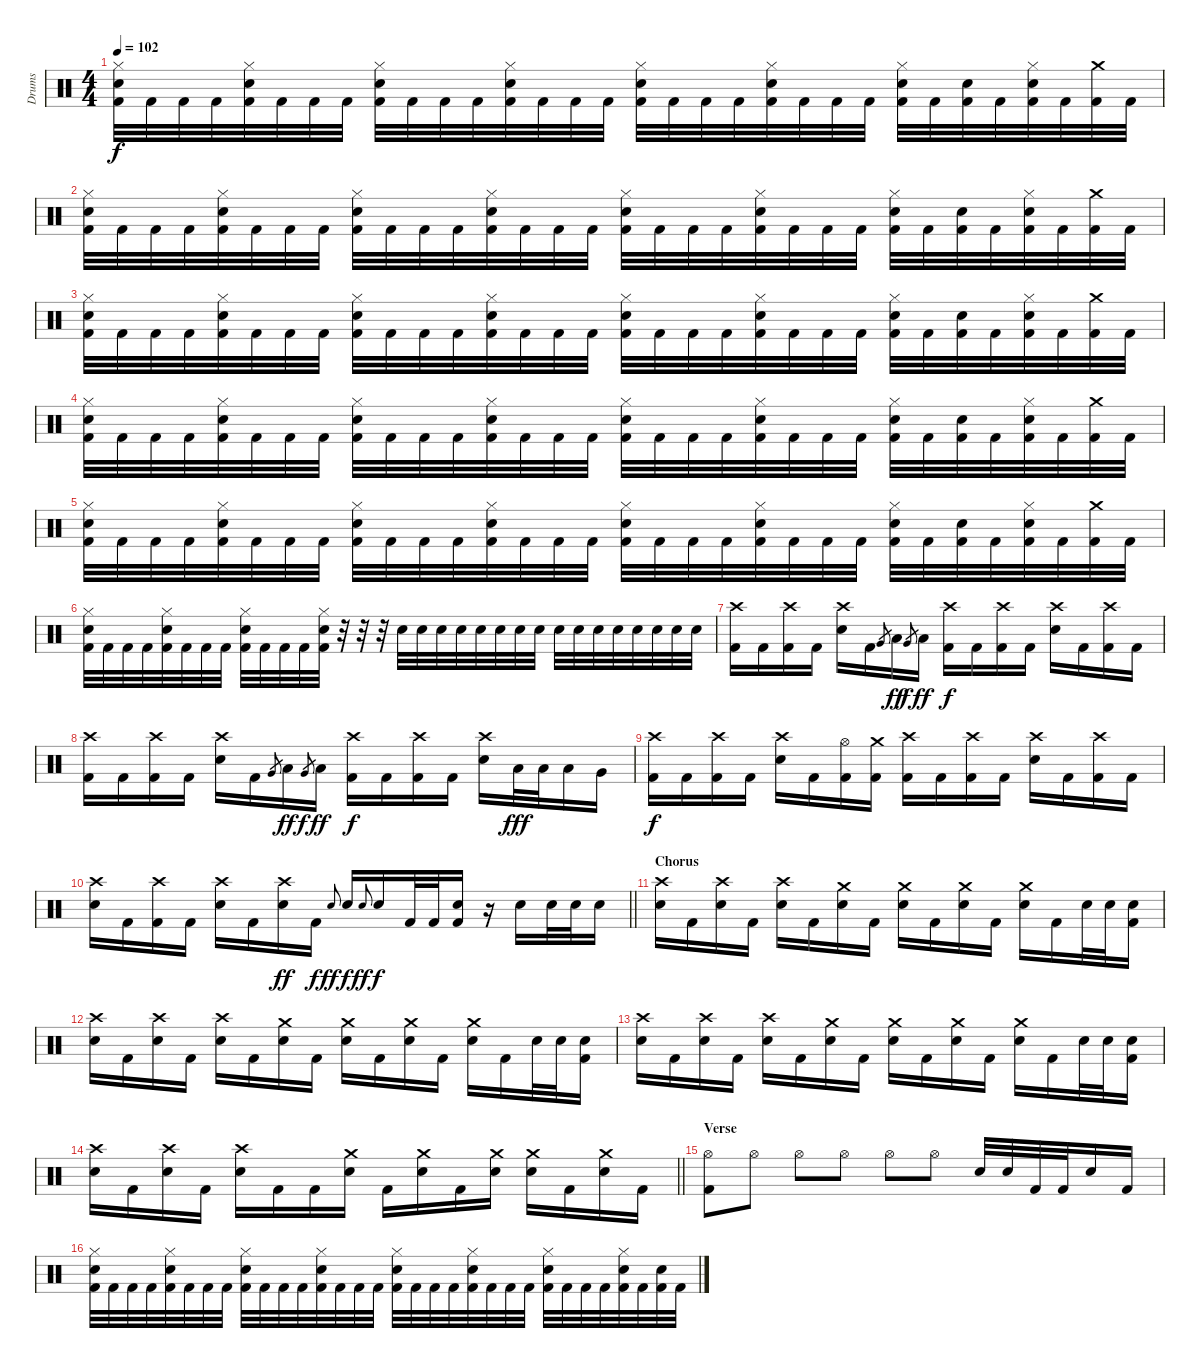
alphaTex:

\track ("Drums" "Drums") {instrument percussion}
\staff {score}
\articulation defaults
\ts (4 4)
\tempo 102
\clef neutral
\ks c
("Hi-Hat (closed)" "Snare (hit) 2" "Kick (hit) 2").32{dy f} "Kick (hit) 2".32 "Kick (hit) 2".32 "Kick (hit) 2".32 ("Hi-Hat (closed)" "Snare (hit) 2" "Kick (hit) 2").32 "Kick (hit) 2".32 "Kick (hit) 2".32 "Kick (hit) 2".32 ("Hi-Hat (closed)" "Snare (hit) 2" "Kick (hit) 2").32 "Kick (hit) 2".32 "Kick (hit) 2".32 "Kick (hit) 2".32 ("Hi-Hat (closed)" "Snare (hit) 2" "Kick (hit) 2").32 "Kick (hit) 2".32 "Kick (hit) 2".32 "Kick (hit) 2".32 ("Hi-Hat (closed)" "Snare (hit) 2" "Kick (hit) 2").32 "Kick (hit) 2".32 "Kick (hit) 2".32 "Kick (hit) 2".32 ("Hi-Hat (closed)" "Snare (hit) 2" "Kick (hit) 2").32 "Kick (hit) 2".32 "Kick (hit) 2".32 "Kick (hit) 2".32 ("Hi-Hat (closed)" "Snare (hit) 2" "Kick (hit) 2").32 "Kick (hit) 2".32 ("Snare (hit) 2" "Kick (hit) 2").32 "Kick (hit) 2".32 ("Hi-Hat (closed)" "Snare (hit) 2" "Kick (hit) 2").32 "Kick (hit) 2".32 ("Crash medium (hit)" "Kick (hit) 2").32 "Kick (hit) 2".32 |
("Hi-Hat (closed)" "Snare (hit) 2" "Kick (hit) 2").32 "Kick (hit) 2".32 "Kick (hit) 2".32 "Kick (hit) 2".32 ("Hi-Hat (closed)" "Snare (hit) 2" "Kick (hit) 2").32 "Kick (hit) 2".32 "Kick (hit) 2".32 "Kick (hit) 2".32 ("Hi-Hat (closed)" "Snare (hit) 2" "Kick (hit) 2").32 "Kick (hit) 2".32 "Kick (hit) 2".32 "Kick (hit) 2".32 ("Hi-Hat (closed)" "Snare (hit) 2" "Kick (hit) 2").32 "Kick (hit) 2".32 "Kick (hit) 2".32 "Kick (hit) 2".32 ("Hi-Hat (closed)" "Snare (hit) 2" "Kick (hit) 2").32 "Kick (hit) 2".32 "Kick (hit) 2".32 "Kick (hit) 2".32 ("Hi-Hat (closed)" "Snare (hit) 2" "Kick (hit) 2").32 "Kick (hit) 2".32 "Kick (hit) 2".32 "Kick (hit) 2".32 ("Hi-Hat (closed)" "Snare (hit) 2" "Kick (hit) 2").32 "Kick (hit) 2".32 ("Snare (hit) 2" "Kick (hit) 2").32 "Kick (hit) 2".32 ("Hi-Hat (closed)" "Snare (hit) 2" "Kick (hit) 2").32 "Kick (hit) 2".32 ("Crash medium (hit)" "Kick (hit) 2").32 "Kick (hit) 2".32 |
("Hi-Hat (closed)" "Snare (hit) 2" "Kick (hit) 2").32 "Kick (hit) 2".32 "Kick (hit) 2".32 "Kick (hit) 2".32 ("Hi-Hat (closed)" "Snare (hit) 2" "Kick (hit) 2").32 "Kick (hit) 2".32 "Kick (hit) 2".32 "Kick (hit) 2".32 ("Hi-Hat (closed)" "Snare (hit) 2" "Kick (hit) 2").32 "Kick (hit) 2".32 "Kick (hit) 2".32 "Kick (hit) 2".32 ("Hi-Hat (closed)" "Snare (hit) 2" "Kick (hit) 2").32 "Kick (hit) 2".32 "Kick (hit) 2".32 "Kick (hit) 2".32 ("Hi-Hat (closed)" "Snare (hit) 2" "Kick (hit) 2").32 "Kick (hit) 2".32 "Kick (hit) 2".32 "Kick (hit) 2".32 ("Hi-Hat (closed)" "Snare (hit) 2" "Kick (hit) 2").32 "Kick (hit) 2".32 "Kick (hit) 2".32 "Kick (hit) 2".32 ("Hi-Hat (closed)" "Snare (hit) 2" "Kick (hit) 2").32 "Kick (hit) 2".32 ("Snare (hit) 2" "Kick (hit) 2").32 "Kick (hit) 2".32 ("Hi-Hat (closed)" "Snare (hit) 2" "Kick (hit) 2").32 "Kick (hit) 2".32 ("Crash medium (hit)" "Kick (hit) 2").32 "Kick (hit) 2".32 |
("Hi-Hat (closed)" "Snare (hit) 2" "Kick (hit) 2").32 "Kick (hit) 2".32 "Kick (hit) 2".32 "Kick (hit) 2".32 ("Hi-Hat (closed)" "Snare (hit) 2" "Kick (hit) 2").32 "Kick (hit) 2".32 "Kick (hit) 2".32 "Kick (hit) 2".32 ("Hi-Hat (closed)" "Snare (hit) 2" "Kick (hit) 2").32 "Kick (hit) 2".32 "Kick (hit) 2".32 "Kick (hit) 2".32 ("Hi-Hat (closed)" "Snare (hit) 2" "Kick (hit) 2").32 "Kick (hit) 2".32 "Kick (hit) 2".32 "Kick (hit) 2".32 ("Hi-Hat (closed)" "Snare (hit) 2" "Kick (hit) 2").32 "Kick (hit) 2".32 "Kick (hit) 2".32 "Kick (hit) 2".32 ("Hi-Hat (closed)" "Snare (hit) 2" "Kick (hit) 2").32 "Kick (hit) 2".32 "Kick (hit) 2".32 "Kick (hit) 2".32 ("Hi-Hat (closed)" "Snare (hit) 2" "Kick (hit) 2").32 "Kick (hit) 2".32 ("Snare (hit) 2" "Kick (hit) 2").32 "Kick (hit) 2".32 ("Hi-Hat (closed)" "Snare (hit) 2" "Kick (hit) 2").32 "Kick (hit) 2".32 ("Crash medium (hit)" "Kick (hit) 2").32 "Kick (hit) 2".32 |
("Hi-Hat (closed)" "Snare (hit) 2" "Kick (hit) 2").32 "Kick (hit) 2".32 "Kick (hit) 2".32 "Kick (hit) 2".32 ("Hi-Hat (closed)" "Snare (hit) 2" "Kick (hit) 2").32 "Kick (hit) 2".32 "Kick (hit) 2".32 "Kick (hit) 2".32 ("Hi-Hat (closed)" "Snare (hit) 2" "Kick (hit) 2").32 "Kick (hit) 2".32 "Kick (hit) 2".32 "Kick (hit) 2".32 ("Hi-Hat (closed)" "Snare (hit) 2" "Kick (hit) 2").32 "Kick (hit) 2".32 "Kick (hit) 2".32 "Kick (hit) 2".32 ("Hi-Hat (closed)" "Snare (hit) 2" "Kick (hit) 2").32 "Kick (hit) 2".32 "Kick (hit) 2".32 "Kick (hit) 2".32 ("Hi-Hat (closed)" "Snare (hit) 2" "Kick (hit) 2").32 "Kick (hit) 2".32 "Kick (hit) 2".32 "Kick (hit) 2".32 ("Hi-Hat (closed)" "Snare (hit) 2" "Kick (hit) 2").32 "Kick (hit) 2".32 ("Snare (hit) 2" "Kick (hit) 2").32 "Kick (hit) 2".32 ("Hi-Hat (closed)" "Snare (hit) 2" "Kick (hit) 2").32 "Kick (hit) 2".32 ("Crash medium (hit)" "Kick (hit) 2").32 "Kick (hit) 2".32 |
("Hi-Hat (closed)" "Snare (hit) 2" "Kick (hit) 2").32 "Kick (hit) 2".32 "Kick (hit) 2".32 "Kick (hit) 2".32 ("Hi-Hat (closed)" "Snare (hit) 2" "Kick (hit) 2").32 "Kick (hit) 2".32 "Kick (hit) 2".32 "Kick (hit) 2".32 ("Hi-Hat (closed)" "Snare (hit) 2" "Kick (hit) 2").32 "Kick (hit) 2".32 "Kick (hit) 2".32 "Kick (hit) 2".32 ("Hi-Hat (closed)" "Snare (hit) 2" "Kick (hit) 2").32 r.32 r.32 r.32 "Snare (hit) 2".32 "Snare (hit) 2".32 "Snare (hit) 2".32 "Snare (hit) 2".32 "Snare (hit) 2".32 "Snare (hit) 2".32 "Snare (hit) 2".32 "Snare (hit) 2".32 "Snare (hit) 2".32 "Snare (hit) 2".32 "Snare (hit) 2".32 "Snare (hit) 2".32 "Snare (hit) 2".32 "Snare (hit) 2".32 "Snare (hit) 2".32 "Snare (hit) 2".32 |
("Crash high (hit)" "Kick (hit) 2").16 "Kick (hit) 2".16 ("Crash high (hit)" "Kick (hit) 2").16 "Kick (hit) 2".16 ("Crash high (hit)" "Snare (hit) 2").16 "Kick (hit) 2".16 "Very Low Tom (hit)".8{gr} "Low Tom (hit)".16{dy ff} "Very Low Tom (hit)".8{gr dy f} "Low Tom (hit)".16{dy ff} ("Crash high (hit)" "Kick (hit) 2").16{dy f} "Kick (hit) 2".16 ("Crash high (hit)" "Kick (hit) 2").16 "Kick (hit) 2".16 ("Crash high (hit)" "Snare (hit) 2").16 "Kick (hit) 2".16 ("Crash high (hit)" "Kick (hit) 2").16 "Kick (hit) 2".16 |
("Crash high (hit)" "Kick (hit) 2").16 "Kick (hit) 2".16 ("Crash high (hit)" "Kick (hit) 2").16 "Kick (hit) 2".16 ("Crash high (hit)" "Snare (hit) 2").16 "Kick (hit) 2".16 "Very Low Tom (hit)".8{gr} "Low Tom (hit)".16{dy ff} "Very Low Tom (hit)".8{gr dy f} "Low Tom (hit)".16{dy ff} ("Crash high (hit)" "Kick (hit) 2").16{dy f} "Kick (hit) 2".16 ("Crash high (hit)" "Kick (hit) 2").16 "Kick (hit) 2".16 ("Crash high (hit)" "Snare (hit) 2").16 "Low Tom (hit)".32{dy fff} "Low Tom (hit)".32 "Low Tom (hit)".16 "Very Low Tom (hit)".16 |
("Crash high (hit)" "Kick (hit) 2").16{dy f} "Kick (hit) 2".16 ("Crash high (hit)" "Kick (hit) 2").16 "Kick (hit) 2".16 ("Crash high (hit)" "Snare (hit) 2").16 "Kick (hit) 2".16 ("Hi-Hat (open)" "Kick (hit) 2").16 ("Crash medium (hit)" "Kick (hit) 2").16 ("Crash high (hit)" "Kick (hit) 2").16 "Kick (hit) 2".16 ("Crash high (hit)" "Kick (hit) 2").16 "Kick (hit) 2".16 ("Crash high (hit)" "Snare (hit) 2").16 "Kick (hit) 2".16 ("Crash high (hit)" "Kick (hit) 2").16 "Kick (hit) 2".16 |
\barLineRight lightlight
("Crash high (hit)" "Snare (hit) 2").16 "Kick (hit) 2".16 ("Crash high (hit)" "Kick (hit) 2").16 "Kick (hit) 2".16 ("Crash high (hit)" "Snare (hit) 2").16 "Kick (hit) 2".16 ("Crash high (hit)" "Snare (hit) 2").16{dy ff} "Kick (hit) 2".16{dy f} "Snare (hit) 2".8{gr onbeat dy ff} "Snare (hit) 2".16{dy f} "Snare (hit) 2".8{gr onbeat dy ff} "Snare (hit) 2".16{dy f} "Kick (hit) 2".32 "Kick (hit) 2".32 ("Snare (hit) 2" "Kick (hit) 2").16 r.16 "Snare (hit) 2".16 "Snare (hit) 2".32 "Snare (hit) 2".32 "Snare (hit) 2".16 |
\section ("" "Chorus")
("Crash high (hit)" "Snare (hit) 2").16 "Kick (hit) 2".16 ("Crash high (hit)" "Snare (hit) 2").16 "Kick (hit) 2".16 ("Crash high (hit)" "Snare (hit) 2").16 "Kick (hit) 2".16 ("Crash medium (hit)" "Snare (hit) 2").16 "Kick (hit) 2".16 ("Crash medium (hit)" "Snare (hit) 2").16 "Kick (hit) 2".16 ("Crash medium (hit)" "Snare (hit) 2").16 "Kick (hit) 2".16 ("Crash medium (hit)" "Snare (hit) 2").16 "Kick (hit) 2".16 "Snare (hit) 2".32 "Snare (hit) 2".32 ("Snare (hit) 2" "Kick (hit) 2").16 |
("Crash high (hit)" "Snare (hit) 2").16 "Kick (hit) 2".16 ("Crash high (hit)" "Snare (hit) 2").16 "Kick (hit) 2".16 ("Crash high (hit)" "Snare (hit) 2").16 "Kick (hit) 2".16 ("Crash medium (hit)" "Snare (hit) 2").16 "Kick (hit) 2".16 ("Crash medium (hit)" "Snare (hit) 2").16 "Kick (hit) 2".16 ("Crash medium (hit)" "Snare (hit) 2").16 "Kick (hit) 2".16 ("Crash medium (hit)" "Snare (hit) 2").16 "Kick (hit) 2".16 "Snare (hit) 2".32 "Snare (hit) 2".32 ("Snare (hit) 2" "Kick (hit) 2").16 |
("Crash high (hit)" "Snare (hit) 2").16 "Kick (hit) 2".16 ("Crash high (hit)" "Snare (hit) 2").16 "Kick (hit) 2".16 ("Crash high (hit)" "Snare (hit) 2").16 "Kick (hit) 2".16 ("Crash medium (hit)" "Snare (hit) 2").16 "Kick (hit) 2".16 ("Crash medium (hit)" "Snare (hit) 2").16 "Kick (hit) 2".16 ("Crash medium (hit)" "Snare (hit) 2").16 "Kick (hit) 2".16 ("Crash medium (hit)" "Snare (hit) 2").16 "Kick (hit) 2".16 "Snare (hit) 2".32 "Snare (hit) 2".32 ("Snare (hit) 2" "Kick (hit) 2").16 |
\barLineRight lightlight
("Crash high (hit)" "Snare (hit) 2").16 "Kick (hit) 2".16 ("Crash high (hit)" "Snare (hit) 2").16 "Kick (hit) 2".16 ("Crash high (hit)" "Snare (hit) 2").16 "Kick (hit) 2".16 "Kick (hit) 2".16 ("Crash medium (hit)" "Snare (hit) 2").16 "Kick (hit) 2".16 ("Crash medium (hit)" "Snare (hit) 2").16 "Kick (hit) 2".16 ("Crash medium (hit)" "Snare (hit) 2").16 ("Crash medium (hit)" "Snare (hit) 2").16 "Kick (hit) 2".16 ("Crash medium (hit)" "Snare (hit) 2").16 "Kick (hit) 2".16 |
\section ("" "Verse")
("Hi-Hat (open)" "Kick (hit) 2").8 "Hi-Hat (open)".8 "Hi-Hat (open)".8 "Hi-Hat (open)".8 "Hi-Hat (open)".8 "Hi-Hat (open)".8 "Snare (hit) 2".32 "Snare (hit) 2".32 "Kick (hit) 2".32 "Kick (hit) 2".32 "Snare (hit) 2".16 "Kick (hit) 2".16 |
("Hi-Hat (closed)" "Snare (hit) 2" "Kick (hit) 2").32 "Kick (hit) 2".32 "Kick (hit) 2".32 "Kick (hit) 2".32 ("Hi-Hat (closed)" "Snare (hit) 2" "Kick (hit) 2").32 "Kick (hit) 2".32 "Kick (hit) 2".32 "Kick (hit) 2".32 ("Hi-Hat (closed)" "Snare (hit) 2" "Kick (hit) 2").32 "Kick (hit) 2".32 "Kick (hit) 2".32 "Kick (hit) 2".32 ("Hi-Hat (closed)" "Snare (hit) 2" "Kick (hit) 2").32 "Kick (hit) 2".32 "Kick (hit) 2".32 "Kick (hit) 2".32 ("Hi-Hat (closed)" "Snare (hit) 2" "Kick (hit) 2").32 "Kick (hit) 2".32 "Kick (hit) 2".32 "Kick (hit) 2".32 ("Hi-Hat (closed)" "Snare (hit) 2" "Kick (hit) 2").32 "Kick (hit) 2".32 "Kick (hit) 2".32 "Kick (hit) 2".32 ("Hi-Hat (closed)" "Snare (hit) 2" "Kick (hit) 2").32 "Kick (hit) 2".32 "Kick (hit) 2".32 "Kick (hit) 2".32 ("Hi-Hat (closed)" "Snare (hit) 2" "Kick (hit) 2").32 "Kick (hit) 2".32 ("Snare (hit) 2" "Kick (hit) 2").32 "Kick (hit) 2".32
